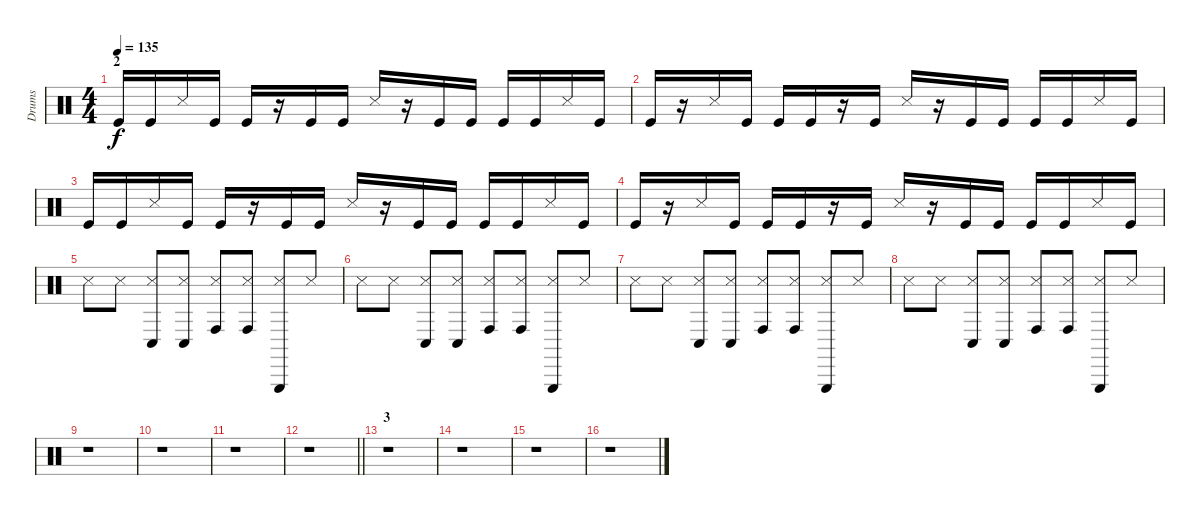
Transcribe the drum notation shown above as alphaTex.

\track ("Drums" "Drums") {instrument percussion}
\staff {score}
\articulation defaults
\ts (4 4)
\section ("" "2")
\tempo 135
\clef neutral
\ks c "Kick (hit)".16{dy f} "Kick (hit)".16 "Snare (side stick) 3".16 "Kick (hit)".16 "Kick (hit)".16
r.16 "Kick (hit)".16 "Kick (hit)".16 "Snare (side stick) 3".16 r.16 "Kick (hit)".16 "Kick (hit)".16 "Kick (hit)".16 "Kick (hit)".16 "Snare (side stick) 3".16 "Kick (hit)".16 |
"Kick (hit)".16 r.16 "Snare (side stick) 3".16 "Kick (hit)".16 "Kick (hit)".16 "Kick (hit)".16 r.16 "Kick (hit)".16 "Snare (side stick) 3".16 r.16 "Kick (hit)".16 "Kick (hit)".16 "Kick (hit)".16 "Kick (hit)".16 "Snare (side stick) 3".16 "Kick (hit)".16 |
"Kick (hit)".16 "Kick (hit)".16 "Snare (side stick) 3".16 "Kick (hit)".16 "Kick (hit)".16 r.16 "Kick (hit)".16 "Kick (hit)".16 "Snare (side stick) 3".16 r.16 "Kick (hit)".16 "Kick (hit)".16 "Kick (hit)".16 "Kick (hit)".16 "Snare (side stick) 3".16 "Kick (hit)".16 |
"Kick (hit)".16 r.16 "Snare (side stick) 3".16 "Kick (hit)".16 "Kick (hit)".16 "Kick (hit)".16 r.16 "Kick (hit)".16 "Snare (side stick) 3".16 r.16 "Kick (hit)".16 "Kick (hit)".16 "Kick (hit)".16 "Kick (hit)".16 "Snare (side stick) 3".16 "Kick (hit)".16 |
"Snare (side stick) 3".8 "Snare (side stick) 3".8 ("Snare (side stick) 3" "Conga low (hit)").8 ("Snare (side stick) 3" "Conga low (hit)").8 ("Snare (side stick) 3" "Conga high (hit)").8 ("Snare (side stick) 3" "Conga high (hit)").8 ("Snare (side stick) 3" "Triangle (hit)").8 "Snare (side stick) 3".8 |
"Snare (side stick) 3".8 "Snare (side stick) 3".8 ("Snare (side stick) 3" "Conga low (hit)").8 ("Snare (side stick) 3" "Conga low (hit)").8 ("Snare (side stick) 3" "Conga high (hit)").8 ("Snare (side stick) 3" "Conga high (hit)").8 ("Snare (side stick) 3" "Triangle (hit)").8 "Snare (side stick) 3".8 |
"Snare (side stick) 3".8 "Snare (side stick) 3".8 ("Snare (side stick) 3" "Conga low (hit)").8 ("Snare (side stick) 3" "Conga low (hit)").8 ("Snare (side stick) 3" "Conga high (hit)").8 ("Snare (side stick) 3" "Conga high (hit)").8 ("Snare (side stick) 3" "Triangle (hit)").8 "Snare (side stick) 3".8 |
"Snare (side stick) 3".8 "Snare (side stick) 3".8 ("Snare (side stick) 3" "Conga low (hit)").8 ("Snare (side stick) 3" "Conga low (hit)").8 ("Snare (side stick) 3" "Conga high (hit)").8 ("Snare (side stick) 3" "Conga high (hit)").8 ("Snare (side stick) 3" "Triangle (hit)").8 "Snare (side stick) 3".8 |
r.1 |
r.1 |
r.1 |
\barLineRight lightlight
r.1 |
\section ("" "3")
r.1 |
r.1 |
r.1 |
r.1
